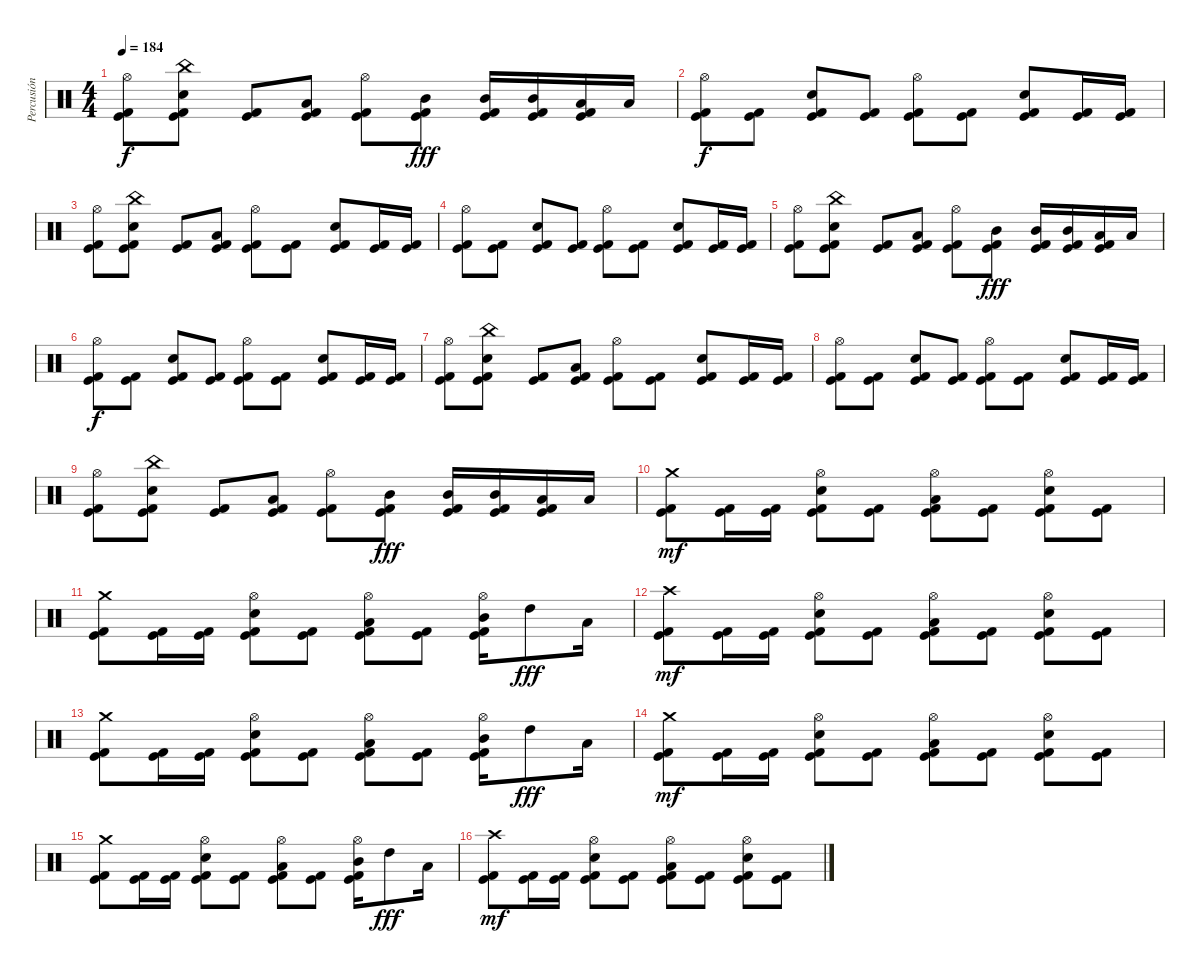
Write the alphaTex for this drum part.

\track ("Percusión" "Percusión") {instrument percussion}
\staff {score}
\articulation defaults
\ts (4 4)
\tempo 184
\clef neutral
\ks c
("Hi-Hat (open)" "Kick (hit) 2" "Kick (hit)").8{dy f} ("China (hit)" "Electric Snare (hit)" "Kick (hit) 2" "Kick (hit)").8 ("Kick (hit) 2" "Kick (hit)").8 ("Low Tom (hit)" "Kick (hit) 2" "Kick (hit)").8 ("Hi-Hat (open)" "Kick (hit) 2" "Kick (hit)").8 ("Mid Tom (hit)" "Kick (hit) 2" "Kick (hit)").8{dy fff} ("Mid Tom (hit)" "Kick (hit) 2" "Kick (hit)").16 ("Mid Tom (hit)" "Kick (hit) 2" "Kick (hit)").16 ("Low Floor Tom (hit)" "Kick (hit) 2" "Kick (hit)").16 "Low Tom (hit)".16 |
("Hi-Hat (open)" "Kick (hit) 2" "Kick (hit)").8{dy f} ("Kick (hit) 2" "Kick (hit)").8 ("Electric Snare (hit)" "Kick (hit) 2" "Kick (hit)").8 ("Kick (hit) 2" "Kick (hit)").8 ("Hi-Hat (open)" "Kick (hit) 2" "Kick (hit)").8 ("Kick (hit) 2" "Kick (hit)").8 ("Electric Snare (hit)" "Kick (hit) 2" "Kick (hit)").8 ("Kick (hit) 2" "Kick (hit)").16 ("Kick (hit) 2" "Kick (hit)").16 |
("Hi-Hat (open)" "Kick (hit) 2" "Kick (hit)").8 ("China (hit)" "Electric Snare (hit)" "Kick (hit) 2" "Kick (hit)").8 ("Kick (hit) 2" "Kick (hit)").8 ("Low Tom (hit)" "Kick (hit) 2" "Kick (hit)").8 ("Hi-Hat (open)" "Kick (hit) 2" "Kick (hit)").8 ("Kick (hit) 2" "Kick (hit)").8 ("Electric Snare (hit)" "Kick (hit) 2" "Kick (hit)").8 ("Kick (hit) 2" "Kick (hit)").16 ("Kick (hit) 2" "Kick (hit)").16 |
("Hi-Hat (open)" "Kick (hit) 2" "Kick (hit)").8 ("Kick (hit) 2" "Kick (hit)").8 ("Electric Snare (hit)" "Kick (hit) 2" "Kick (hit)").8 ("Kick (hit) 2" "Kick (hit)").8 ("Hi-Hat (open)" "Kick (hit) 2" "Kick (hit)").8 ("Kick (hit) 2" "Kick (hit)").8 ("Electric Snare (hit)" "Kick (hit) 2" "Kick (hit)").8 ("Kick (hit) 2" "Kick (hit)").16 ("Kick (hit) 2" "Kick (hit)").16 |
("Hi-Hat (open)" "Kick (hit) 2" "Kick (hit)").8 ("China (hit)" "Electric Snare (hit)" "Kick (hit) 2" "Kick (hit)").8 ("Kick (hit) 2" "Kick (hit)").8 ("Low Tom (hit)" "Kick (hit) 2" "Kick (hit)").8 ("Hi-Hat (open)" "Kick (hit) 2" "Kick (hit)").8 ("Mid Tom (hit)" "Kick (hit) 2" "Kick (hit)").8{dy fff} ("Mid Tom (hit)" "Kick (hit) 2" "Kick (hit)").16 ("Mid Tom (hit)" "Kick (hit) 2" "Kick (hit)").16 ("Low Floor Tom (hit)" "Kick (hit) 2" "Kick (hit)").16 "Low Tom (hit)".16 |
("Hi-Hat (open)" "Kick (hit) 2" "Kick (hit)").8{dy f} ("Kick (hit) 2" "Kick (hit)").8 ("Electric Snare (hit)" "Kick (hit) 2" "Kick (hit)").8 ("Kick (hit) 2" "Kick (hit)").8 ("Hi-Hat (open)" "Kick (hit) 2" "Kick (hit)").8 ("Kick (hit) 2" "Kick (hit)").8 ("Electric Snare (hit)" "Kick (hit) 2" "Kick (hit)").8 ("Kick (hit) 2" "Kick (hit)").16 ("Kick (hit) 2" "Kick (hit)").16 |
("Hi-Hat (open)" "Kick (hit) 2" "Kick (hit)").8 ("China (hit)" "Electric Snare (hit)" "Kick (hit) 2" "Kick (hit)").8 ("Kick (hit) 2" "Kick (hit)").8 ("Low Tom (hit)" "Kick (hit) 2" "Kick (hit)").8 ("Hi-Hat (open)" "Kick (hit) 2" "Kick (hit)").8 ("Kick (hit) 2" "Kick (hit)").8 ("Electric Snare (hit)" "Kick (hit) 2" "Kick (hit)").8 ("Kick (hit) 2" "Kick (hit)").16 ("Kick (hit) 2" "Kick (hit)").16 |
("Hi-Hat (open)" "Kick (hit) 2" "Kick (hit)").8 ("Kick (hit) 2" "Kick (hit)").8 ("Electric Snare (hit)" "Kick (hit) 2" "Kick (hit)").8 ("Kick (hit) 2" "Kick (hit)").8 ("Hi-Hat (open)" "Kick (hit) 2" "Kick (hit)").8 ("Kick (hit) 2" "Kick (hit)").8 ("Electric Snare (hit)" "Kick (hit) 2" "Kick (hit)").8 ("Kick (hit) 2" "Kick (hit)").16 ("Kick (hit) 2" "Kick (hit)").16 |
("Hi-Hat (open)" "Kick (hit) 2" "Kick (hit)").8 ("China (hit)" "Electric Snare (hit)" "Kick (hit) 2" "Kick (hit)").8 ("Kick (hit) 2" "Kick (hit)").8 ("Low Tom (hit)" "Kick (hit) 2" "Kick (hit)").8 ("Hi-Hat (open)" "Kick (hit) 2" "Kick (hit)").8 ("Mid Tom (hit)" "Kick (hit) 2" "Kick (hit)").8{dy fff} ("Mid Tom (hit)" "Kick (hit) 2" "Kick (hit)").16 ("Mid Tom (hit)" "Kick (hit) 2" "Kick (hit)").16 ("Low Floor Tom (hit)" "Kick (hit) 2" "Kick (hit)").16 "Low Tom (hit)".16 |
("Crash medium (hit)" "Kick (hit) 2" "Kick (hit)").8{dy mf} ("Kick (hit) 2" "Kick (hit)").16 ("Kick (hit) 2" "Kick (hit)").16 ("Hi-Hat (open)" "Electric Snare (hit)" "Kick (hit) 2" "Kick (hit)").8 ("Kick (hit) 2" "Kick (hit)").8 ("Hi-Hat (open)" "Low Floor Tom (hit)" "Kick (hit) 2" "Kick (hit)").8 ("Kick (hit) 2" "Kick (hit)").8 ("Hi-Hat (open)" "Electric Snare (hit)" "Kick (hit) 2" "Kick (hit)").8 ("Kick (hit) 2" "Kick (hit)").8 |
("Crash medium (hit)" "Kick (hit) 2" "Kick (hit)").8 ("Kick (hit) 2" "Kick (hit)").16 ("Kick (hit) 2" "Kick (hit)").16 ("Hi-Hat (open)" "Electric Snare (hit)" "Kick (hit) 2" "Kick (hit)").8 ("Kick (hit) 2" "Kick (hit)").8 ("Hi-Hat (open)" "Low Floor Tom (hit)" "Kick (hit) 2" "Kick (hit)").8 ("Kick (hit) 2" "Kick (hit)").8 ("Hi-Hat (open)" "Mid Tom (hit)" "Kick (hit) 2" "Kick (hit)").16 "High Tom (hit)".8{dy fff} "Low Floor Tom (hit)".16 |
("Crash high (hit)" "Kick (hit) 2" "Kick (hit)").8{dy mf} ("Kick (hit) 2" "Kick (hit)").16 ("Kick (hit) 2" "Kick (hit)").16 ("Hi-Hat (open)" "Electric Snare (hit)" "Kick (hit) 2" "Kick (hit)").8 ("Kick (hit) 2" "Kick (hit)").8 ("Hi-Hat (open)" "Low Floor Tom (hit)" "Kick (hit) 2" "Kick (hit)").8 ("Kick (hit) 2" "Kick (hit)").8 ("Hi-Hat (open)" "Electric Snare (hit)" "Kick (hit) 2" "Kick (hit)").8 ("Kick (hit) 2" "Kick (hit)").8 |
("Crash medium (hit)" "Kick (hit) 2" "Kick (hit)").8 ("Kick (hit) 2" "Kick (hit)").16 ("Kick (hit) 2" "Kick (hit)").16 ("Hi-Hat (open)" "Electric Snare (hit)" "Kick (hit) 2" "Kick (hit)").8 ("Kick (hit) 2" "Kick (hit)").8 ("Hi-Hat (open)" "Low Floor Tom (hit)" "Kick (hit) 2" "Kick (hit)").8 ("Kick (hit) 2" "Kick (hit)").8 ("Hi-Hat (open)" "Mid Tom (hit)" "Kick (hit) 2" "Kick (hit)").16 "High Tom (hit)".8{dy fff} "Low Floor Tom (hit)".16 |
("Crash medium (hit)" "Kick (hit) 2" "Kick (hit)").8{dy mf} ("Kick (hit) 2" "Kick (hit)").16 ("Kick (hit) 2" "Kick (hit)").16 ("Hi-Hat (open)" "Electric Snare (hit)" "Kick (hit) 2" "Kick (hit)").8 ("Kick (hit) 2" "Kick (hit)").8 ("Hi-Hat (open)" "Low Floor Tom (hit)" "Kick (hit) 2" "Kick (hit)").8 ("Kick (hit) 2" "Kick (hit)").8 ("Hi-Hat (open)" "Electric Snare (hit)" "Kick (hit) 2" "Kick (hit)").8 ("Kick (hit) 2" "Kick (hit)").8 |
("Crash medium (hit)" "Kick (hit) 2" "Kick (hit)").8 ("Kick (hit) 2" "Kick (hit)").16 ("Kick (hit) 2" "Kick (hit)").16 ("Hi-Hat (open)" "Electric Snare (hit)" "Kick (hit) 2" "Kick (hit)").8 ("Kick (hit) 2" "Kick (hit)").8 ("Hi-Hat (open)" "Low Floor Tom (hit)" "Kick (hit) 2" "Kick (hit)").8 ("Kick (hit) 2" "Kick (hit)").8 ("Hi-Hat (open)" "Mid Tom (hit)" "Kick (hit) 2" "Kick (hit)").16 "High Tom (hit)".8{dy fff} "Low Floor Tom (hit)".16 |
("Crash high (hit)" "Kick (hit) 2" "Kick (hit)").8{dy mf} ("Kick (hit) 2" "Kick (hit)").16 ("Kick (hit) 2" "Kick (hit)").16 ("Hi-Hat (open)" "Electric Snare (hit)" "Kick (hit) 2" "Kick (hit)").8 ("Kick (hit) 2" "Kick (hit)").8 ("Hi-Hat (open)" "Low Floor Tom (hit)" "Kick (hit) 2" "Kick (hit)").8 ("Kick (hit) 2" "Kick (hit)").8 ("Hi-Hat (open)" "Electric Snare (hit)" "Kick (hit) 2" "Kick (hit)").8 ("Kick (hit) 2" "Kick (hit)").8
